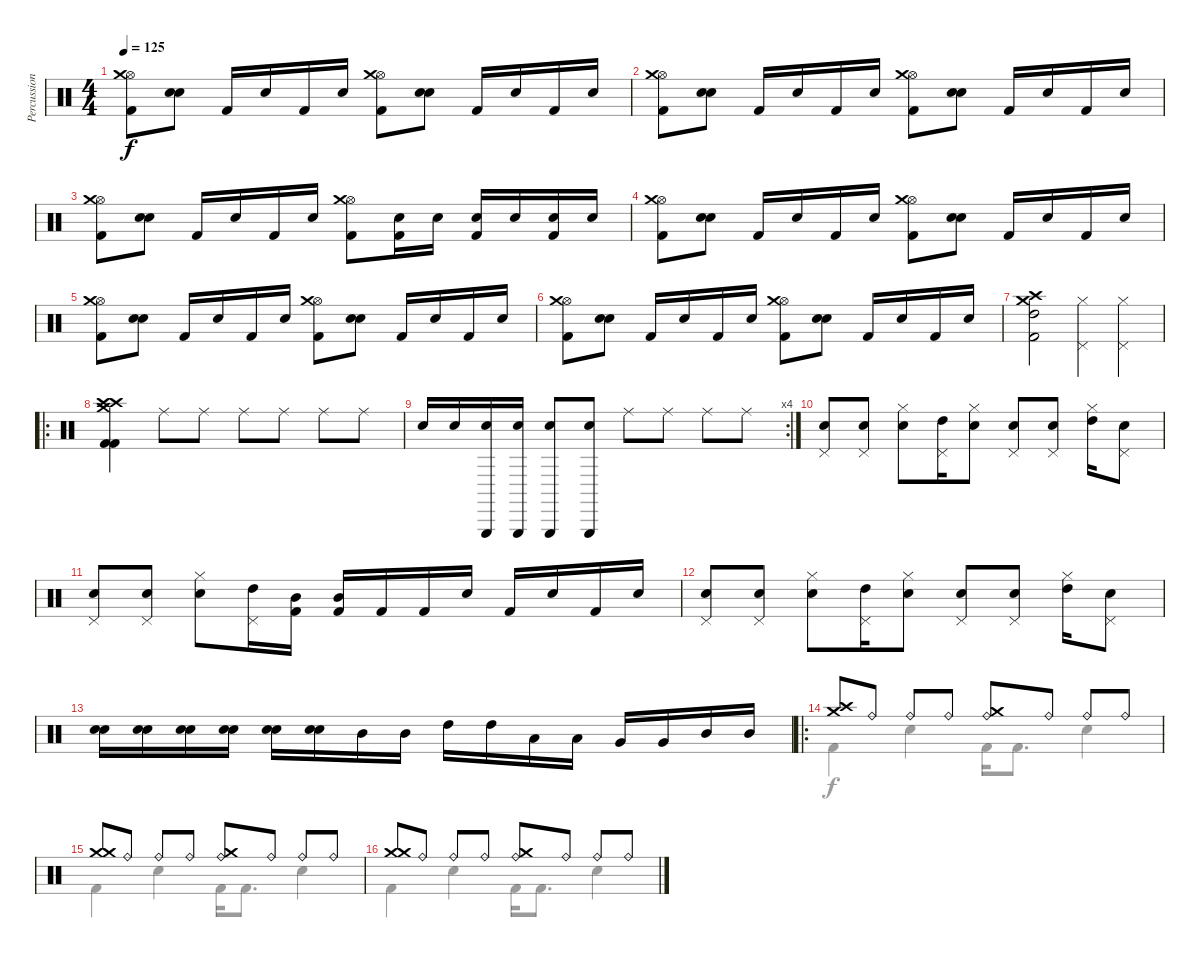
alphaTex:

\track ("Percussion" "Percussion") {instrument percussion}
\staff {score}
\articulation defaults
\voice
\ts (4 4)
\tempo 125
\clef neutral
\ks c
("Kick (hit) 2" "Hi-Hat (open)" "Crash medium (hit)").8{dy f} ("Snare (hit) 2" "Electric Snare (hit)").8 "Kick (hit) 2".16 "Snare (hit) 2".16 "Kick (hit) 2".16 "Electric Snare (hit)".16 ("Kick (hit) 2" "Hi-Hat (open)" "Crash medium (hit)").8 ("Snare (hit) 2" "Electric Snare (hit)").8 "Kick (hit) 2".16 "Snare (hit) 2".16 "Kick (hit) 2".16 "Electric Snare (hit)".16 |
("Kick (hit) 2" "Hi-Hat (open)" "Crash medium (hit)").8 ("Snare (hit) 2" "Electric Snare (hit)").8 "Kick (hit) 2".16 "Snare (hit) 2".16 "Kick (hit) 2".16 "Electric Snare (hit)".16 ("Kick (hit) 2" "Hi-Hat (open)" "Crash medium (hit)").8 ("Snare (hit) 2" "Electric Snare (hit)").8 "Kick (hit) 2".16 "Snare (hit) 2".16 "Kick (hit) 2".16 "Electric Snare (hit)".16 |
("Kick (hit) 2" "Hi-Hat (open)" "Crash medium (hit)").8 ("Snare (hit) 2" "Electric Snare (hit)").8 "Kick (hit) 2".16 "Snare (hit) 2".16 "Kick (hit) 2".16 "Electric Snare (hit)".16 ("Kick (hit) 2" "Hi-Hat (open)" "Crash medium (hit)").8 ("Kick (hit) 2" "Electric Snare (hit)").16 "Electric Snare (hit)".16 ("Kick (hit) 2" "Electric Snare (hit)").16 "Electric Snare (hit)".16 ("Kick (hit) 2" "Electric Snare (hit)").16 "Electric Snare (hit)".16 |
("Kick (hit) 2" "Hi-Hat (open)" "Crash medium (hit)").8 ("Snare (hit) 2" "Electric Snare (hit)").8 "Kick (hit) 2".16 "Snare (hit) 2".16 "Kick (hit) 2".16 "Electric Snare (hit)".16 ("Kick (hit) 2" "Hi-Hat (open)" "Crash medium (hit)").8 ("Snare (hit) 2" "Electric Snare (hit)").8 "Kick (hit) 2".16 "Snare (hit) 2".16 "Kick (hit) 2".16 "Electric Snare (hit)".16 |
("Kick (hit) 2" "Hi-Hat (open)" "Crash medium (hit)").8 ("Snare (hit) 2" "Electric Snare (hit)").8 "Kick (hit) 2".16 "Snare (hit) 2".16 "Kick (hit) 2".16 "Electric Snare (hit)".16 ("Kick (hit) 2" "Hi-Hat (open)" "Crash medium (hit)").8 ("Snare (hit) 2" "Electric Snare (hit)").8 "Kick (hit) 2".16 "Snare (hit) 2".16 "Kick (hit) 2".16 "Electric Snare (hit)".16 |
("Kick (hit) 2" "Hi-Hat (open)" "Crash medium (hit)").8 ("Snare (hit) 2" "Electric Snare (hit)").8 "Kick (hit) 2".16 "Snare (hit) 2".16 "Kick (hit) 2".16 "Electric Snare (hit)".16 ("Kick (hit) 2" "Hi-Hat (open)" "Crash medium (hit)").8 ("Snare (hit) 2" "Electric Snare (hit)").8 "Kick (hit) 2".16 "Snare (hit) 2".16 "Kick (hit) 2".16 "Electric Snare (hit)".16 |
("Kick (hit) 2" "High Tom (hit)" "Crash high (hit)" "Crash medium (hit)").2 ("Hi-Hat (closed)" "Pedal Hi-Hat (hit)").4 ("Hi-Hat (closed)" "Pedal Hi-Hat (hit)").4 |
\ro
("Kick (hit) 2" "Kick (hit) 2" "Crash high (hit)" "Crash high (hit)" "Crash medium (hit)").4 "Ride (middle)".8 "Ride (middle)".8 "Ride (middle)".8 "Ride (middle)".8 "Ride (middle)".8 "Ride (middle)".8 |
\rc 4 "Metronome (bell)".16 "Metronome (bell)".16
("Metronome (bell)" "Triangle (hit)").16 ("Metronome (bell)" "Triangle (hit)").16 ("Metronome (bell)" "Triangle (hit)").8 ("Metronome (bell)" "Triangle (hit)").8 "Ride (middle)".8 "Ride (middle)".8 "Ride (middle)".8 "Ride (middle)".8 |
("Snare (hit) 2" "Pedal Hi-Hat (hit)").8 ("Snare (hit) 2" "Pedal Hi-Hat (hit)").8 ("Electric Snare (hit)" "Hi-Hat (closed)").8 ("High Tom (hit)" "Pedal Hi-Hat (hit)").16 ("Snare (hit) 2" "Hi-Hat (closed)").8 ("Snare (hit) 2" "Pedal Hi-Hat (hit)").8 ("Electric Snare (hit)" "Pedal Hi-Hat (hit)").8 ("High Tom (hit)" "Hi-Hat (closed)").16 ("Snare (hit) 2" "Pedal Hi-Hat (hit)").8 |
("Snare (hit) 2" "Pedal Hi-Hat (hit)").8 ("Snare (hit) 2" "Pedal Hi-Hat (hit)").8 ("Electric Snare (hit)" "Hi-Hat (closed)").8 ("High Tom (hit)" "Pedal Hi-Hat (hit)").16 ("Mid Tom (hit)" "Kick (hit) 2").16 ("Mid Tom (hit)" "Kick (hit) 2").16 "Kick (hit) 2".16 "Kick (hit) 2".16 "Electric Snare (hit)".16 "Kick (hit) 2".16 "Snare (hit) 2".16 "Kick (hit) 2".16 "Snare (hit) 2".16 |
("Snare (hit) 2" "Pedal Hi-Hat (hit)").8 ("Snare (hit) 2" "Pedal Hi-Hat (hit)").8 ("Electric Snare (hit)" "Hi-Hat (closed)").8 ("High Tom (hit)" "Pedal Hi-Hat (hit)").16 ("Snare (hit) 2" "Hi-Hat (closed)").8 ("Snare (hit) 2" "Pedal Hi-Hat (hit)").8 ("Electric Snare (hit)" "Pedal Hi-Hat (hit)").8 ("High Tom (hit)" "Hi-Hat (closed)").16 ("Snare (hit) 2" "Pedal Hi-Hat (hit)").8 |
("Snare (hit) 2" "Electric Snare (hit)").16 ("Snare (hit) 2" "Electric Snare (hit)").16 ("Snare (hit) 2" "Electric Snare (hit)").16 ("Snare (hit) 2" "Electric Snare (hit)").16 ("Snare (hit) 2" "Electric Snare (hit)").16 ("Snare (hit) 2" "Electric Snare (hit)").16 "Mid Tom (hit)".16 "Mid Tom (hit)".16 "High Tom (hit)".16 "High Tom (hit)".16 "Low Tom (hit)".16 "Low Tom (hit)".16 "Very Low Tom (hit)".16 "Very Low Tom (hit)".16 "Mid Tom (hit)".16 "Mid Tom (hit)".16 |
\ro
("Crash medium (hit)" "Crash high (hit)").8 "Ride (bell)".8 "Ride (bell)".8 "Ride (bell)".8 ("Crash medium (hit)" "Ride (bell)").8 "Ride (bell)".8 "Ride (bell)".8 "Ride (bell)".8 |
("Crash medium (hit)" "Crash medium (hit)").8 "Ride (bell)".8 "Ride (bell)".8 "Ride (bell)".8 ("Crash medium (hit)" "Ride (bell)").8 "Ride (bell)".8 "Ride (bell)".8 "Ride (bell)".8 |
("Crash medium (hit)" "Crash medium (hit)").8 "Ride (bell)".8 "Ride (bell)".8 "Ride (bell)".8 ("Crash medium (hit)" "Ride (bell)").8 "Ride (bell)".8 "Ride (bell)".8 "Ride (bell)".8
\voice
\clef neutral
\ottava regular
\simile none
\ks c
|
|
|
|
|
|
|
|
|
|
|
|
|
"Kick (hit) 2".4 "Electric Snare (hit)".4 "Kick (hit) 2".16 "Kick (hit) 2".8{d} "Electric Snare (hit)".4 |
"Kick (hit) 2".4 "Electric Snare (hit)".4 "Kick (hit) 2".16 "Kick (hit) 2".8{d} "Electric Snare (hit)".4 |
"Kick (hit) 2".4 "Electric Snare (hit)".4 "Kick (hit) 2".16 "Kick (hit) 2".8{d} "Electric Snare (hit)".4
